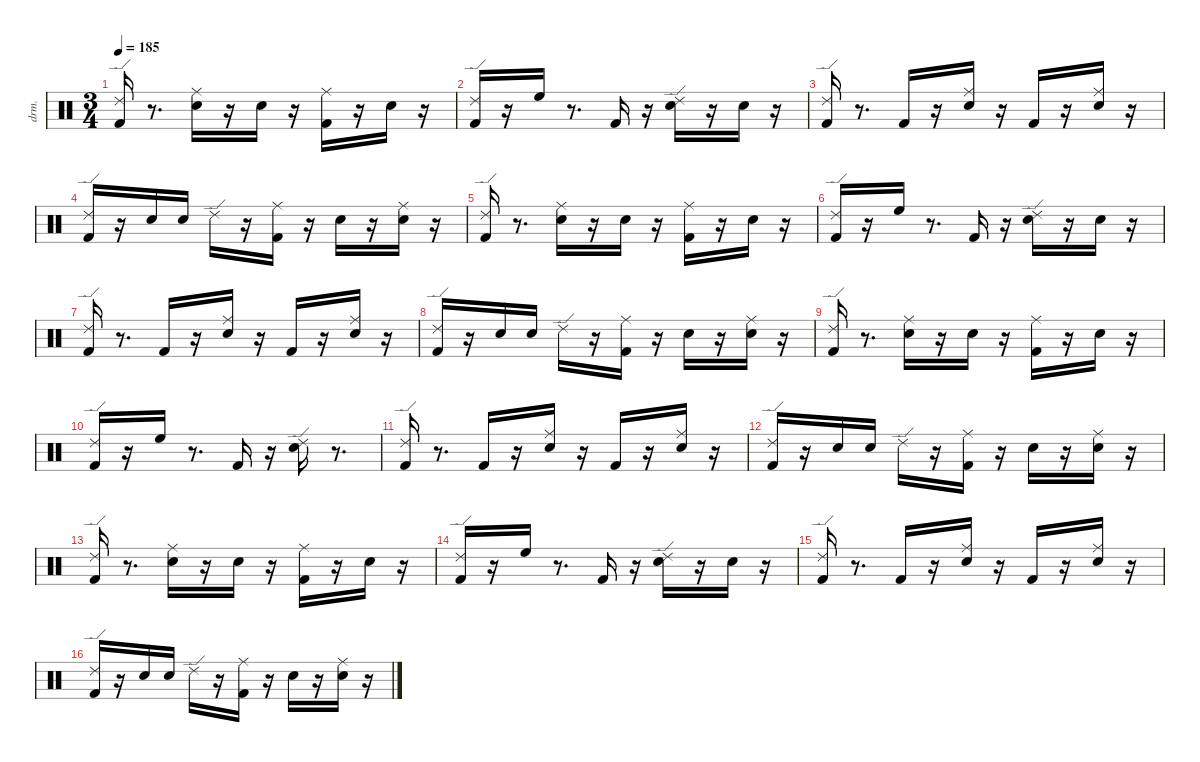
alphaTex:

\defaultSystemsLayout 4
\hideDynamics
\bracketExtendMode nobrackets
\otherSystemsTrackNameOrientation horizontal
\track ("drums" "drm.") {instrument percussion}
\staff {score}
\articulation defaults
\ts (3 4)
\tempo 185
\clef neutral
\ks aminor
("Kick (hit) 2" "Ride (edge) 2").16{dy ff beam Up} r.8{d beam Up} ("Snare (hit) 2" "Ride (middle)"{acc #}).16{beam Down} r.16{beam Down} "Snare (hit) 2".16{dy mf beam Down} r.16{beam Down} ("Kick (hit) 2" "Ride (middle)"{acc #}).16{dy ff beam Down} r.16{beam Down} "Snare (hit) 2".16{dy f beam Down} r.16{beam Down} |
("Kick (hit) 2" "Ride (edge) 2").16{dy ff beam Up} r.16{beam Up} "High Floor Tom (hit)".16{beam Down} r.8{d beam Down} "Kick (hit) 2".16{beam Up} r.16{beam Up} ("Snare (hit) 2" "Ride (edge) 2").16{dy fff beam Down} r.16{beam Down} "Snare (hit) 2".16{dy p beam Down} r.16{beam Down} |
("Kick (hit) 2" "Ride (edge) 2").16{dy ff beam Up} r.8{d beam Up} "Kick (hit) 2".16{beam Up} r.16{beam Up} ("Snare (hit) 2" "Ride (middle)"{acc #}).16{dy f beam Down} r.16{beam Down} "Kick (hit) 2".16{dy ff beam Up} r.16{beam Up} ("Snare (hit) 2" "Ride (middle)"{acc #}).16{beam Down} r.16{beam Down} |
("Kick (hit) 2" "Ride (edge) 2").16{beam Up} r.16{beam Up} "Snare (hit) 2".16{beam Down} "Snare (hit) 2".16{dy mf beam Down} "Ride (edge) 2".16{beam Down} r.16{beam Down} ("Kick (hit) 2" "Ride (middle)"{acc #}).16{dy ff beam Down} r.16{beam Down} "Snare (hit) 2".16{beam Down} r.16{beam Down} ("Snare (hit) 2" "Ride (middle)"{acc #}).16{dy mf beam Down} r.16{beam Down} |
("Kick (hit) 2" "Ride (edge) 2").16{dy ff beam Up} r.8{d beam Up} ("Snare (hit) 2" "Ride (middle)"{acc #}).16{beam Down} r.16{beam Down} "Snare (hit) 2".16{dy mf beam Down} r.16{beam Down} ("Kick (hit) 2" "Ride (middle)"{acc #}).16{dy ff beam Down} r.16{beam Down} "Snare (hit) 2".16{dy f beam Down} r.16{beam Down} |
("Kick (hit) 2" "Ride (edge) 2").16{dy ff beam Up} r.16{beam Up} "High Floor Tom (hit)".16{beam Down} r.8{d beam Down} "Kick (hit) 2".16{beam Up} r.16{beam Up} ("Snare (hit) 2" "Ride (edge) 2").16{dy fff beam Down} r.16{beam Down} "Snare (hit) 2".16{dy mp beam Down} r.16{beam Down} |
("Kick (hit) 2" "Ride (edge) 2").16{dy ff beam Up} r.8{d beam Up} "Kick (hit) 2".16{beam Up} r.16{beam Up} ("Snare (hit) 2" "Ride (middle)"{acc #}).16{dy f beam Down} r.16{beam Down} "Kick (hit) 2".16{dy ff beam Up} r.16{beam Up} ("Snare (hit) 2" "Ride (middle)"{acc #}).16{beam Down} r.16{beam Down} |
("Kick (hit) 2" "Ride (edge) 2").16{beam Up} r.16{beam Up} "Snare (hit) 2".16{beam Down} "Snare (hit) 2".16{dy mf beam Down} "Ride (edge) 2".16{beam Down} r.16{beam Down} ("Kick (hit) 2" "Ride (middle)"{acc #}).16{dy fff beam Down} r.16{beam Down} "Snare (hit) 2".16{dy ff beam Down} r.16{beam Down} ("Snare (hit) 2" "Ride (middle)"{acc #}).16{dy fff beam Down} r.16{beam Down} |
("Kick (hit) 2" "Ride (edge) 2").16{dy ff beam Up} r.8{d beam Up} ("Snare (hit) 2" "Ride (middle)"{acc #}).16{beam Down} r.16{beam Down} "Snare (hit) 2".16{dy mf beam Down} r.16{beam Down} ("Kick (hit) 2" "Ride (middle)"{acc #}).16{dy ff beam Down} r.16{beam Down} "Snare (hit) 2".16{dy f beam Down} r.16{beam Down} |
("Kick (hit) 2" "Ride (edge) 2").16{dy ff beam Up} r.16{beam Up} "High Floor Tom (hit)".16{beam Down} r.8{d beam Down} "Kick (hit) 2".16{beam Up} r.16{beam Up} ("Snare (hit) 2" "Ride (edge) 2").16{dy fff beam Down} r.8{d beam Down} |
("Kick (hit) 2" "Ride (edge) 2").16{dy ff beam Up} r.8{d beam Up} "Kick (hit) 2".16{beam Up} r.16{beam Up} ("Snare (hit) 2" "Ride (middle)"{acc #}).16{dy f beam Down} r.16{beam Down} "Kick (hit) 2".16{dy ff beam Up} r.16{beam Up} ("Snare (hit) 2" "Ride (middle)"{acc #}).16{beam Down} r.16{beam Down} |
("Kick (hit) 2" "Ride (edge) 2").16{beam Up} r.16{beam Up} "Snare (hit) 2".16{beam Down} "Snare (hit) 2".16{dy mf beam Down} "Ride (edge) 2".16{beam Down} r.16{beam Down} ("Kick (hit) 2" "Ride (middle)"{acc #}).16{dy ff beam Down} r.16{beam Down} "Snare (hit) 2".16{beam Down} r.16{beam Down} ("Snare (hit) 2" "Ride (middle)"{acc #}).16{dy mf beam Down} r.16{beam Down} |
("Kick (hit) 2" "Ride (edge) 2").16{dy ff beam Up} r.8{d beam Up} ("Snare (hit) 2" "Ride (middle)"{acc #}).16{beam Down} r.16{beam Down} "Snare (hit) 2".16{dy mf beam Down} r.16{beam Down} ("Kick (hit) 2" "Ride (middle)"{acc #}).16{dy ff beam Down} r.16{beam Down} "Snare (hit) 2".16{dy f beam Down} r.16{beam Down} |
("Kick (hit) 2" "Ride (edge) 2").16{dy ff beam Up} r.16{beam Up} "High Floor Tom (hit)".16{dy fff beam Down} r.8{d beam Down} "Kick (hit) 2".16{dy ff beam Up} r.16{beam Up} ("Snare (hit) 2" "Ride (edge) 2").16{dy fff beam Down} r.16{beam Down} "Snare (hit) 2".16{dy mp beam Down} r.16{beam Down} |
("Kick (hit) 2" "Ride (edge) 2").16{dy ff beam Up} r.8{d beam Up} "Kick (hit) 2".16{beam Up} r.16{beam Up} ("Snare (hit) 2" "Ride (middle)"{acc #}).16{dy f beam Down} r.16{beam Down} "Kick (hit) 2".16{dy ff beam Up} r.16{beam Up} ("Snare (hit) 2" "Ride (middle)"{acc #}).16{beam Down} r.16{beam Down} |
("Kick (hit) 2" "Ride (edge) 2").16{beam Up} r.16{beam Up} "Snare (hit) 2".16{beam Down} "Snare (hit) 2".16{dy mf beam Down} "Ride (edge) 2".16{beam Down} r.16{beam Down} ("Kick (hit) 2" "Ride (middle)"{acc #}).16{dy fff beam Down} r.16{beam Down} "Snare (hit) 2".16{dy ff beam Down} r.16{beam Down} ("Snare (hit) 2" "Ride (middle)"{acc #}).16{dy mf beam Down} r.16{beam Down}
